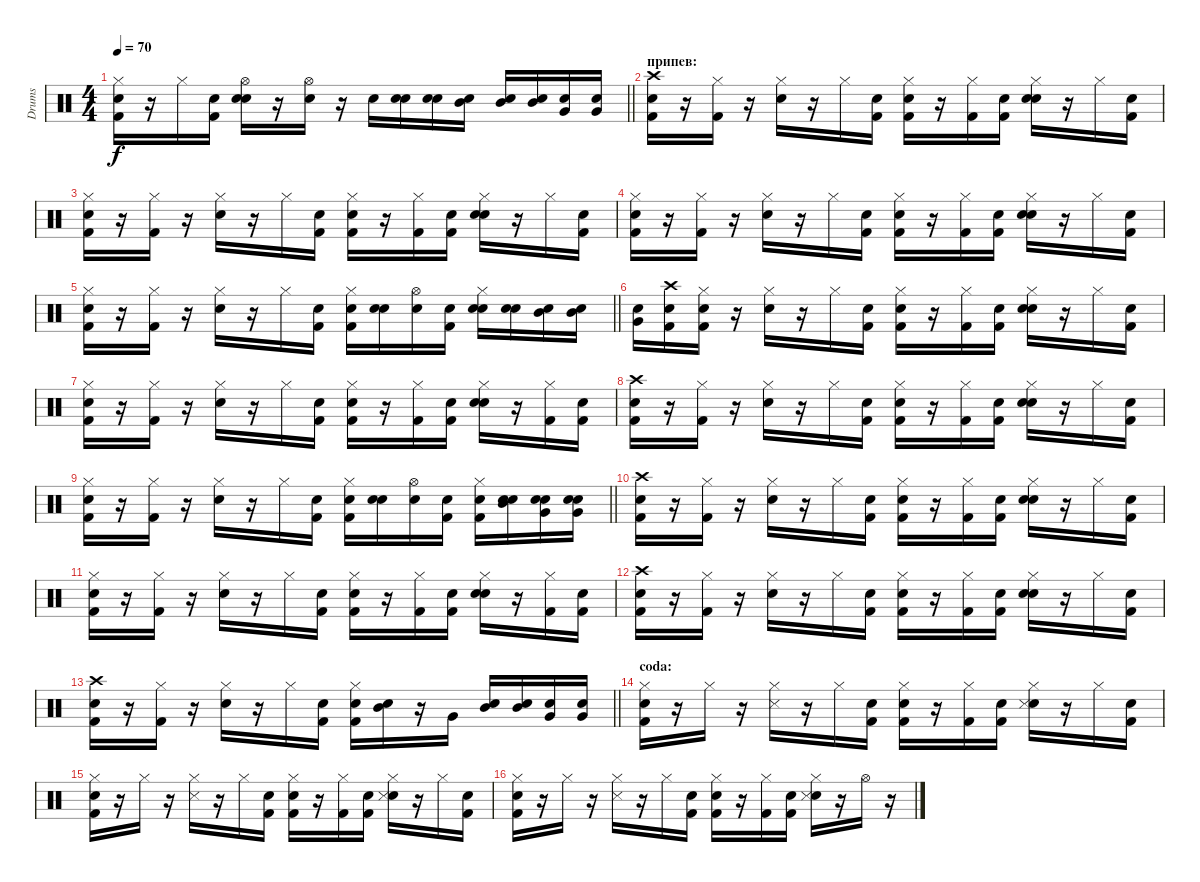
\track ("Drums" "Drums") {instrument percussion}
\staff {score}
\articulation defaults
\ts (4 4)
\tempo 70
\clef neutral
\barLineRight lightlight
\ks c
("Snare (hit)" "Kick (hit) 2" "Hi-Hat (closed)").16{dy f} r.16 "Hi-Hat (closed)".16 ("Snare (hit)" "Kick (hit) 2").16 ("Snare (hit)" "Snare (hit) 2" "Hi-Hat (open)").16 r.16 ("Snare (hit) 2" "Hi-Hat (open)").16 r.16 "Snare (hit) 2".16 ("Snare (hit)" "Snare (hit) 2").16 ("Snare (hit)" "Snare (hit) 2").16 ("Snare (hit)" "Mid Tom (hit)").16 ("Snare (hit)" "Mid Tom (hit)").16 ("Snare (hit)" "Mid Tom (hit)").16 ("Snare (hit)" "Very Low Tom (hit)").16 ("Snare (hit)" "Very Low Tom (hit)").16 |
\section ("" "припев:")
("Snare (hit)" "Kick (hit) 2" "Crash high (hit)").16 r.16 ("Kick (hit) 2" "Hi-Hat (closed)").16 r.16 ("Snare (hit) 2" "Hi-Hat (closed)").16 r.16 "Hi-Hat (closed)".16 ("Snare (hit)" "Kick (hit) 2").16 ("Snare (hit)" "Kick (hit) 2" "Hi-Hat (closed)").16 r.16 ("Kick (hit) 2" "Hi-Hat (closed)").16 ("Snare (hit)" "Kick (hit) 2").16 ("Snare (hit)" "Snare (hit) 2" "Hi-Hat (closed)").16 r.16 "Hi-Hat (closed)".16 ("Snare (hit)" "Kick (hit) 2").16 |
("Snare (hit)" "Kick (hit) 2" "Hi-Hat (closed)").16 r.16 ("Kick (hit) 2" "Hi-Hat (closed)").16 r.16 ("Snare (hit) 2" "Hi-Hat (closed)").16 r.16 "Hi-Hat (closed)".16 ("Snare (hit)" "Kick (hit) 2").16 ("Snare (hit)" "Kick (hit) 2" "Hi-Hat (closed)").16 r.16 ("Kick (hit) 2" "Hi-Hat (closed)").16 ("Snare (hit)" "Kick (hit) 2").16 ("Snare (hit)" "Snare (hit) 2" "Hi-Hat (closed)").16 r.16 "Hi-Hat (closed)".16 ("Snare (hit)" "Kick (hit) 2").16 |
("Snare (hit)" "Kick (hit) 2" "Hi-Hat (closed)").16 r.16 ("Kick (hit) 2" "Hi-Hat (closed)").16 r.16 ("Snare (hit) 2" "Hi-Hat (closed)").16 r.16 "Hi-Hat (closed)".16 ("Snare (hit)" "Kick (hit) 2").16 ("Snare (hit)" "Kick (hit) 2" "Hi-Hat (closed)").16 r.16 ("Kick (hit) 2" "Hi-Hat (closed)").16 ("Snare (hit)" "Kick (hit) 2").16 ("Snare (hit)" "Snare (hit) 2" "Hi-Hat (closed)").16 r.16 "Hi-Hat (closed)".16 ("Snare (hit)" "Kick (hit) 2").16 |
\barLineRight lightlight
("Snare (hit)" "Kick (hit) 2" "Hi-Hat (closed)").16 r.16 ("Kick (hit) 2" "Hi-Hat (closed)").16 r.16 ("Snare (hit) 2" "Hi-Hat (closed)").16 r.16 "Hi-Hat (closed)".16 ("Snare (hit)" "Kick (hit) 2").16 ("Snare (hit)" "Kick (hit) 2" "Hi-Hat (closed)").16 ("Snare (hit)" "Snare (hit) 2").16 ("Snare (hit)" "Hi-Hat (open)").16 ("Snare (hit)" "Kick (hit) 2").16 ("Snare (hit)" "Snare (hit) 2" "Hi-Hat (closed)").16 ("Snare (hit)" "Snare (hit) 2").16 ("Snare (hit)" "Mid Tom (hit)").16 ("Snare (hit)" "Mid Tom (hit)").16 |
("Snare (hit)" "Very Low Tom (hit)").16 ("Snare (hit)" "Kick (hit) 2" "Crash high (hit)").16 ("Snare (hit)" "Kick (hit) 2" "Hi-Hat (closed)").16 r.16 ("Snare (hit) 2" "Hi-Hat (closed)").16 r.16 "Hi-Hat (closed)".16 ("Snare (hit)" "Kick (hit) 2").16 ("Snare (hit)" "Kick (hit) 2" "Hi-Hat (closed)").16 r.16 ("Kick (hit) 2" "Hi-Hat (closed)").16 ("Snare (hit)" "Kick (hit) 2").16 ("Snare (hit)" "Snare (hit) 2" "Hi-Hat (closed)").16 r.16 "Hi-Hat (closed)".16 ("Snare (hit)" "Kick (hit) 2").16 |
("Snare (hit)" "Kick (hit) 2" "Hi-Hat (closed)").16 r.16 ("Kick (hit) 2" "Hi-Hat (closed)").16 r.16 ("Snare (hit) 2" "Hi-Hat (closed)").16 r.16 "Hi-Hat (closed)".16 ("Snare (hit)" "Kick (hit) 2").16 ("Snare (hit)" "Kick (hit) 2" "Hi-Hat (closed)").16 r.16 ("Kick (hit) 2" "Hi-Hat (closed)").16 ("Snare (hit)" "Kick (hit) 2").16 ("Snare (hit)" "Snare (hit) 2" "Hi-Hat (closed)").16 r.16 ("Kick (hit) 2" "Hi-Hat (closed)").16 ("Snare (hit)" "Kick (hit) 2").16 |
("Snare (hit)" "Kick (hit) 2" "Crash high (hit)").16 r.16 ("Kick (hit) 2" "Hi-Hat (closed)").16 r.16 ("Snare (hit) 2" "Hi-Hat (closed)").16 r.16 "Hi-Hat (closed)".16 ("Snare (hit)" "Kick (hit) 2").16 ("Snare (hit)" "Kick (hit) 2" "Hi-Hat (closed)").16 r.16 ("Kick (hit) 2" "Hi-Hat (closed)").16 ("Snare (hit)" "Kick (hit) 2").16 ("Snare (hit)" "Snare (hit) 2" "Hi-Hat (closed)").16 r.16 "Hi-Hat (closed)".16 ("Snare (hit)" "Kick (hit) 2").16 |
\barLineRight lightlight
("Snare (hit)" "Kick (hit) 2" "Hi-Hat (closed)").16 r.16 ("Kick (hit) 2" "Hi-Hat (closed)").16 r.16 ("Snare (hit) 2" "Hi-Hat (closed)").16 r.16 "Hi-Hat (closed)".16 ("Snare (hit)" "Kick (hit) 2").16 ("Snare (hit)" "Kick (hit) 2" "Hi-Hat (closed)").16 ("Snare (hit)" "Snare (hit) 2").16 ("Snare (hit)" "Hi-Hat (open)").16 ("Snare (hit)" "Kick (hit) 2").16 ("Snare (hit)" "Kick (hit) 2" "Hi-Hat (closed)").16 ("Snare (hit)" "Snare (hit) 2" "Mid Tom (hit)").16 ("Snare (hit)" "Snare (hit) 2" "Very Low Tom (hit)").16 ("Snare (hit)" "Snare (hit) 2" "Very Low Tom (hit)").16 |
("Snare (hit)" "Kick (hit) 2" "Crash high (hit)").16 r.16 ("Kick (hit) 2" "Hi-Hat (closed)").16 r.16 ("Snare (hit) 2" "Hi-Hat (closed)").16 r.16 "Hi-Hat (closed)".16 ("Snare (hit)" "Kick (hit) 2").16 ("Snare (hit)" "Kick (hit) 2" "Hi-Hat (closed)").16 r.16 ("Kick (hit) 2" "Hi-Hat (closed)").16 ("Snare (hit)" "Kick (hit) 2").16 ("Snare (hit)" "Snare (hit) 2" "Hi-Hat (closed)").16 r.16 "Hi-Hat (closed)".16 ("Snare (hit)" "Kick (hit) 2").16 |
("Snare (hit)" "Kick (hit) 2" "Hi-Hat (closed)").16 r.16 ("Kick (hit) 2" "Hi-Hat (closed)").16 r.16 ("Snare (hit) 2" "Hi-Hat (closed)").16 r.16 "Hi-Hat (closed)".16 ("Snare (hit)" "Kick (hit) 2").16 ("Snare (hit)" "Kick (hit) 2" "Hi-Hat (closed)").16 r.16 ("Kick (hit) 2" "Hi-Hat (closed)").16 ("Snare (hit)" "Kick (hit) 2").16 ("Snare (hit)" "Snare (hit) 2" "Hi-Hat (closed)").16 r.16 ("Kick (hit) 2" "Hi-Hat (closed)").16 ("Snare (hit)" "Kick (hit) 2").16 |
("Snare (hit)" "Kick (hit) 2" "Crash high (hit)").16 r.16 ("Kick (hit) 2" "Hi-Hat (closed)").16 r.16 ("Snare (hit) 2" "Hi-Hat (closed)").16 r.16 "Hi-Hat (closed)".16 ("Snare (hit)" "Kick (hit) 2").16 ("Snare (hit)" "Kick (hit) 2" "Hi-Hat (closed)").16 r.16 ("Kick (hit) 2" "Hi-Hat (closed)").16 ("Snare (hit)" "Kick (hit) 2").16 ("Snare (hit)" "Snare (hit) 2" "Hi-Hat (closed)").16 r.16 "Hi-Hat (closed)".16 ("Snare (hit)" "Kick (hit) 2").16 |
\barLineRight lightlight
("Snare (hit)" "Kick (hit) 2" "Crash high (hit)").16 r.16 ("Kick (hit) 2" "Hi-Hat (closed)").16 r.16 ("Snare (hit) 2" "Hi-Hat (closed)").16 r.16 "Hi-Hat (closed)".16 ("Snare (hit)" "Kick (hit) 2").16 ("Snare (hit)" "Kick (hit) 2" "Hi-Hat (closed)").16 ("Snare (hit)" "Mid Tom (hit)").16 r.16 "Very Low Tom (hit)".16 ("Snare (hit)" "Mid Tom (hit)").16 ("Snare (hit)" "Mid Tom (hit)").16 ("Snare (hit)" "Very Low Tom (hit)").16 ("Snare (hit)" "Very Low Tom (hit)").16 |
\section ("" "coda:")
("Snare (hit)" "Kick (hit) 2" "Hi-Hat (closed)").16 r.16 "Hi-Hat (closed)".16 r.16 ("Snare (side stick) 3" "Hi-Hat (closed)").16 r.16 "Hi-Hat (closed)".16 ("Snare (hit)" "Kick (hit) 2").16 ("Snare (hit)" "Kick (hit) 2" "Hi-Hat (closed)").16 r.16 ("Kick (hit) 2" "Hi-Hat (closed)").16 ("Snare (hit)" "Kick (hit) 2").16 ("Snare (hit)" "Snare (side stick) 3" "Hi-Hat (closed)").16 r.16 "Hi-Hat (closed)".16 ("Snare (hit)" "Kick (hit) 2").16 |
("Snare (hit)" "Kick (hit) 2" "Hi-Hat (closed)").16 r.16 "Hi-Hat (closed)".16 r.16 ("Snare (side stick) 3" "Hi-Hat (closed)").16 r.16 "Hi-Hat (closed)".16 ("Snare (hit)" "Kick (hit) 2").16 ("Snare (hit)" "Kick (hit) 2" "Hi-Hat (closed)").16 r.16 ("Kick (hit) 2" "Hi-Hat (closed)").16 ("Snare (hit)" "Kick (hit) 2").16 ("Snare (hit)" "Snare (side stick) 3" "Hi-Hat (closed)").16 r.16 "Hi-Hat (closed)".16 ("Snare (hit)" "Kick (hit) 2").16 |
("Snare (hit)" "Kick (hit) 2" "Hi-Hat (closed)").16 r.16 "Hi-Hat (closed)".16 r.16 ("Snare (side stick) 3" "Hi-Hat (closed)").16 r.16 "Hi-Hat (closed)".16 ("Snare (hit)" "Kick (hit) 2").16 ("Snare (hit)" "Kick (hit) 2" "Hi-Hat (closed)").16 r.16 ("Kick (hit) 2" "Hi-Hat (closed)").16 ("Snare (hit)" "Kick (hit) 2").16 ("Snare (hit)" "Snare (side stick) 3" "Hi-Hat (closed)").16 r.16 "Hi-Hat (open)".16 r.16
